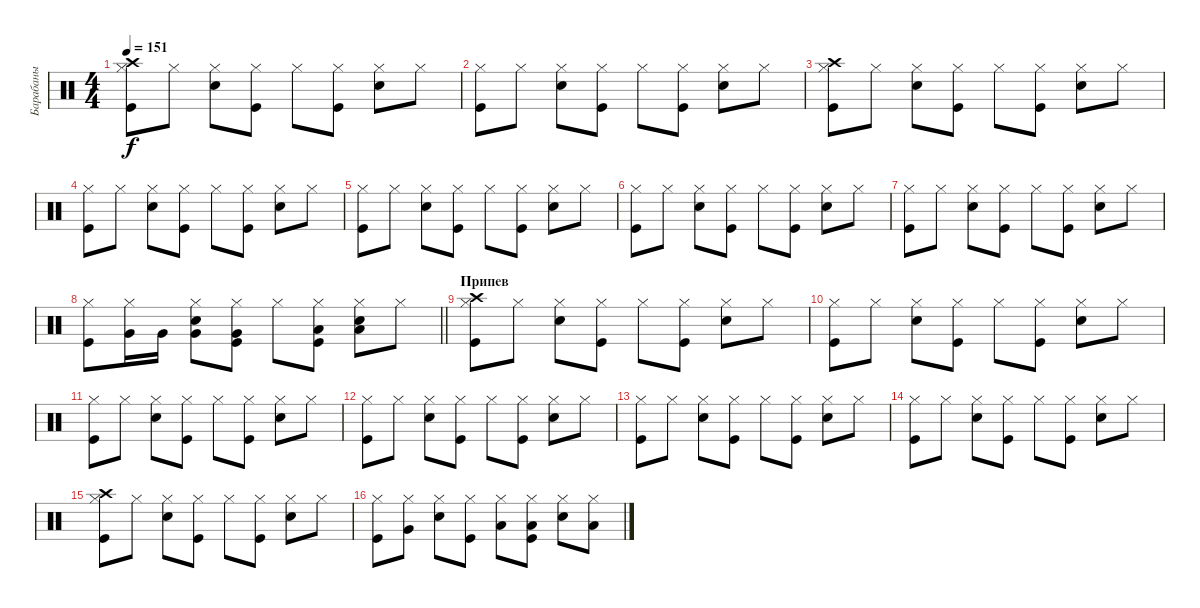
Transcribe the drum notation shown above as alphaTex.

\track ("Барабаны" "Барабаны") {instrument percussion}
\staff {score}
\articulation defaults
\ts (4 4)
\tempo 151
\clef neutral
\ks c
("Kick (hit)" "Hi-Hat (closed)" "Crash high (hit)").8{dy f} "Hi-Hat (closed)".8 ("Snare (hit) 2" "Hi-Hat (closed)").8 ("Kick (hit)" "Hi-Hat (closed)").8 "Hi-Hat (closed)".8 ("Kick (hit)" "Hi-Hat (closed)").8 ("Snare (hit) 2" "Hi-Hat (closed)").8 "Hi-Hat (closed)".8 |
("Kick (hit)" "Hi-Hat (closed)").8 "Hi-Hat (closed)".8 ("Snare (hit) 2" "Hi-Hat (closed)").8 ("Kick (hit)" "Hi-Hat (closed)").8 "Hi-Hat (closed)".8 ("Kick (hit)" "Hi-Hat (closed)").8 ("Snare (hit) 2" "Hi-Hat (closed)").8 "Hi-Hat (closed)".8 |
("Kick (hit)" "Hi-Hat (closed)" "Crash high (hit)").8 "Hi-Hat (closed)".8 ("Snare (hit) 2" "Hi-Hat (closed)").8 ("Kick (hit)" "Hi-Hat (closed)").8 "Hi-Hat (closed)".8 ("Kick (hit)" "Hi-Hat (closed)").8 ("Snare (hit) 2" "Hi-Hat (closed)").8 "Hi-Hat (closed)".8 |
("Kick (hit)" "Hi-Hat (closed)").8 "Hi-Hat (closed)".8 ("Snare (hit) 2" "Hi-Hat (closed)").8 ("Kick (hit)" "Hi-Hat (closed)").8 "Hi-Hat (closed)".8 ("Kick (hit)" "Hi-Hat (closed)").8 ("Snare (hit) 2" "Hi-Hat (closed)").8 "Hi-Hat (closed)".8 |
("Kick (hit)" "Hi-Hat (closed)").8 "Hi-Hat (closed)".8 ("Snare (hit) 2" "Hi-Hat (closed)").8 ("Kick (hit)" "Hi-Hat (closed)").8 "Hi-Hat (closed)".8 ("Kick (hit)" "Hi-Hat (closed)").8 ("Snare (hit) 2" "Hi-Hat (closed)").8 "Hi-Hat (closed)".8 |
("Kick (hit)" "Hi-Hat (closed)").8 "Hi-Hat (closed)".8 ("Snare (hit) 2" "Hi-Hat (closed)").8 ("Kick (hit)" "Hi-Hat (closed)").8 "Hi-Hat (closed)".8 ("Kick (hit)" "Hi-Hat (closed)").8 ("Snare (hit) 2" "Hi-Hat (closed)").8 "Hi-Hat (closed)".8 |
("Kick (hit)" "Hi-Hat (closed)").8 "Hi-Hat (closed)".8 ("Snare (hit) 2" "Hi-Hat (closed)").8 ("Kick (hit)" "Hi-Hat (closed)").8 "Hi-Hat (closed)".8 ("Kick (hit)" "Hi-Hat (closed)").8 ("Snare (hit) 2" "Hi-Hat (closed)").8 "Hi-Hat (closed)".8 |
\barLineRight lightlight
("Kick (hit)" "Hi-Hat (closed)").8 ("Hi-Hat (closed)" "Very Low Tom (hit)").16 "Very Low Tom (hit)".16 ("Snare (hit) 2" "Hi-Hat (closed)" "Very Low Tom (hit)").8 ("Kick (hit)" "Hi-Hat (closed)" "Very Low Tom (hit)").8 "Hi-Hat (closed)".8 ("Kick (hit)" "Hi-Hat (closed)" "Low Tom (hit)").8 ("Snare (hit) 2" "Hi-Hat (closed)" "Low Tom (hit)").8 "Hi-Hat (closed)".8 |
\section ("" "Припев")
("Kick (hit)" "Hi-Hat (closed)" "Crash high (hit)").8 "Hi-Hat (closed)".8 ("Snare (hit) 2" "Hi-Hat (closed)").8 ("Kick (hit)" "Hi-Hat (closed)").8 "Hi-Hat (closed)".8 ("Kick (hit)" "Hi-Hat (closed)").8 ("Snare (hit) 2" "Hi-Hat (closed)").8 "Hi-Hat (closed)".8 |
("Kick (hit)" "Hi-Hat (closed)").8 "Hi-Hat (closed)".8 ("Snare (hit) 2" "Hi-Hat (closed)").8 ("Kick (hit)" "Hi-Hat (closed)").8 "Hi-Hat (closed)".8 ("Kick (hit)" "Hi-Hat (closed)").8 ("Snare (hit) 2" "Hi-Hat (closed)").8 "Hi-Hat (closed)".8 |
("Kick (hit)" "Hi-Hat (closed)").8 "Hi-Hat (closed)".8 ("Snare (hit) 2" "Hi-Hat (closed)").8 ("Kick (hit)" "Hi-Hat (closed)").8 "Hi-Hat (closed)".8 ("Kick (hit)" "Hi-Hat (closed)").8 ("Snare (hit) 2" "Hi-Hat (closed)").8 "Hi-Hat (closed)".8 |
("Kick (hit)" "Hi-Hat (closed)").8 "Hi-Hat (closed)".8 ("Snare (hit) 2" "Hi-Hat (closed)").8 ("Kick (hit)" "Hi-Hat (closed)").8 "Hi-Hat (closed)".8 ("Kick (hit)" "Hi-Hat (closed)").8 ("Snare (hit) 2" "Hi-Hat (closed)").8 "Hi-Hat (closed)".8 |
("Kick (hit)" "Hi-Hat (closed)").8 "Hi-Hat (closed)".8 ("Snare (hit) 2" "Hi-Hat (closed)").8 ("Kick (hit)" "Hi-Hat (closed)").8 "Hi-Hat (closed)".8 ("Kick (hit)" "Hi-Hat (closed)").8 ("Snare (hit) 2" "Hi-Hat (closed)").8 "Hi-Hat (closed)".8 |
("Kick (hit)" "Hi-Hat (closed)").8 "Hi-Hat (closed)".8 ("Snare (hit) 2" "Hi-Hat (closed)").8 ("Kick (hit)" "Hi-Hat (closed)").8 "Hi-Hat (closed)".8 ("Kick (hit)" "Hi-Hat (closed)").8 ("Snare (hit) 2" "Hi-Hat (closed)").8 "Hi-Hat (closed)".8 |
("Kick (hit)" "Hi-Hat (closed)" "Crash high (hit)").8 "Hi-Hat (closed)".8 ("Snare (hit) 2" "Hi-Hat (closed)").8 ("Kick (hit)" "Hi-Hat (closed)").8 "Hi-Hat (closed)".8 ("Kick (hit)" "Hi-Hat (closed)").8 ("Snare (hit) 2" "Hi-Hat (closed)").8 "Hi-Hat (closed)".8 |
("Kick (hit)" "Hi-Hat (closed)").8 ("Hi-Hat (closed)" "Very Low Tom (hit)").8 ("Snare (hit) 2" "Hi-Hat (closed)").8 ("Kick (hit)" "Hi-Hat (closed)").8 ("Hi-Hat (closed)" "Low Tom (hit)").8 ("Kick (hit)" "Hi-Hat (closed)" "Low Tom (hit)").8 ("Snare (hit) 2" "Hi-Hat (closed)").8 ("Hi-Hat (closed)" "Low Tom (hit)").8
